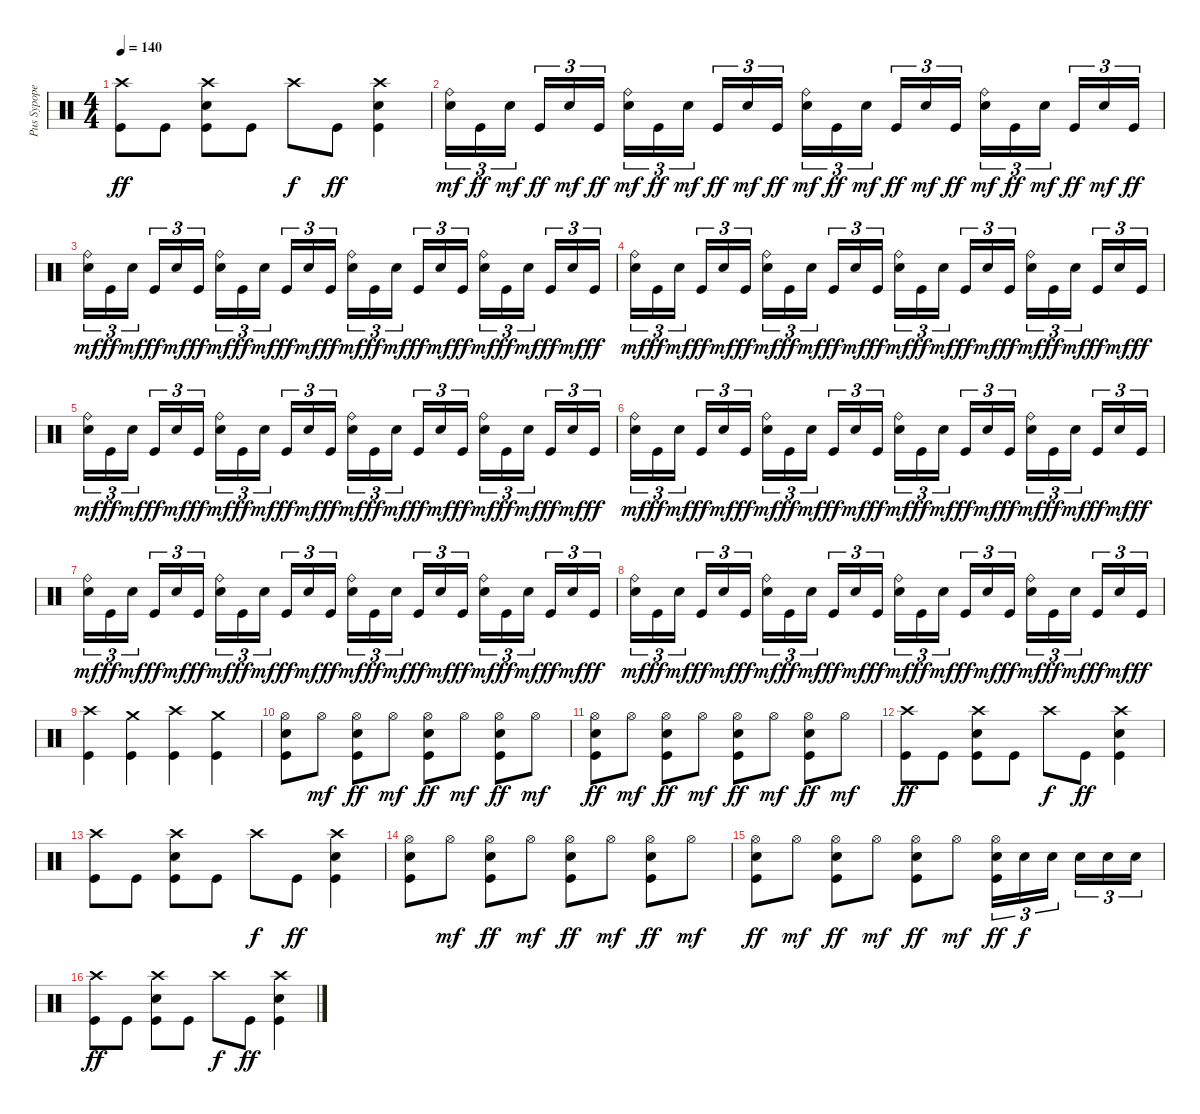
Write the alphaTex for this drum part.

\track ("Pus Sypope" "Pus Sypope") {instrument percussion}
\staff {score}
\articulation defaults
\ts (4 4)
\tempo 140
\clef neutral
\ks c
("Crash high (hit)" "Kick (hit)").8{dy ff} "Kick (hit)".8 ("Crash high (hit)" "Electric Snare (hit)" "Kick (hit)").8 "Kick (hit)".8 "Crash high (hit)".8{dy f} "Kick (hit)".8{dy ff} ("Crash high (hit)" "Electric Snare (hit)" "Kick (hit)").4 |
("Ride (bell)" "Electric Snare (hit)").16{tu (3 2) dy mf} "Kick (hit)".16{tu (3 2) dy ff} "Electric Snare (hit)".16{tu (3 2) dy mf} "Kick (hit)".16{tu (3 2) dy ff} "Electric Snare (hit)".16{tu (3 2) dy mf} "Kick (hit)".16{tu (3 2) dy ff} ("Ride (bell)" "Electric Snare (hit)").16{tu (3 2) dy mf} "Kick (hit)".16{tu (3 2) dy ff} "Electric Snare (hit)".16{tu (3 2) dy mf} "Kick (hit)".16{tu (3 2) dy ff} "Electric Snare (hit)".16{tu (3 2) dy mf} "Kick (hit)".16{tu (3 2) dy ff} ("Ride (bell)" "Electric Snare (hit)").16{tu (3 2) dy mf} "Kick (hit)".16{tu (3 2) dy ff} "Electric Snare (hit)".16{tu (3 2) dy mf} "Kick (hit)".16{tu (3 2) dy ff} "Electric Snare (hit)".16{tu (3 2) dy mf} "Kick (hit)".16{tu (3 2) dy ff} ("Ride (bell)" "Electric Snare (hit)").16{tu (3 2) dy mf} "Kick (hit)".16{tu (3 2) dy ff} "Electric Snare (hit)".16{tu (3 2) dy mf} "Kick (hit)".16{tu (3 2) dy ff} "Electric Snare (hit)".16{tu (3 2) dy mf} "Kick (hit)".16{tu (3 2) dy ff} |
("Ride (bell)" "Electric Snare (hit)").16{tu (3 2) dy mf} "Kick (hit)".16{tu (3 2) dy ff} "Electric Snare (hit)".16{tu (3 2) dy mf} "Kick (hit)".16{tu (3 2) dy ff} "Electric Snare (hit)".16{tu (3 2) dy mf} "Kick (hit)".16{tu (3 2) dy ff} ("Ride (bell)" "Electric Snare (hit)").16{tu (3 2) dy mf} "Kick (hit)".16{tu (3 2) dy ff} "Electric Snare (hit)".16{tu (3 2) dy mf} "Kick (hit)".16{tu (3 2) dy ff} "Electric Snare (hit)".16{tu (3 2) dy mf} "Kick (hit)".16{tu (3 2) dy ff} ("Ride (bell)" "Electric Snare (hit)").16{tu (3 2) dy mf} "Kick (hit)".16{tu (3 2) dy ff} "Electric Snare (hit)".16{tu (3 2) dy mf} "Kick (hit)".16{tu (3 2) dy ff} "Electric Snare (hit)".16{tu (3 2) dy mf} "Kick (hit)".16{tu (3 2) dy ff} ("Ride (bell)" "Electric Snare (hit)").16{tu (3 2) dy mf} "Kick (hit)".16{tu (3 2) dy ff} "Electric Snare (hit)".16{tu (3 2) dy mf} "Kick (hit)".16{tu (3 2) dy ff} "Electric Snare (hit)".16{tu (3 2) dy mf} "Kick (hit)".16{tu (3 2) dy ff} |
("Ride (bell)" "Electric Snare (hit)").16{tu (3 2) dy mf} "Kick (hit)".16{tu (3 2) dy ff} "Electric Snare (hit)".16{tu (3 2) dy mf} "Kick (hit)".16{tu (3 2) dy ff} "Electric Snare (hit)".16{tu (3 2) dy mf} "Kick (hit)".16{tu (3 2) dy ff} ("Ride (bell)" "Electric Snare (hit)").16{tu (3 2) dy mf} "Kick (hit)".16{tu (3 2) dy ff} "Electric Snare (hit)".16{tu (3 2) dy mf} "Kick (hit)".16{tu (3 2) dy ff} "Electric Snare (hit)".16{tu (3 2) dy mf} "Kick (hit)".16{tu (3 2) dy ff} ("Ride (bell)" "Electric Snare (hit)").16{tu (3 2) dy mf} "Kick (hit)".16{tu (3 2) dy ff} "Electric Snare (hit)".16{tu (3 2) dy mf} "Kick (hit)".16{tu (3 2) dy ff} "Electric Snare (hit)".16{tu (3 2) dy mf} "Kick (hit)".16{tu (3 2) dy ff} ("Ride (bell)" "Electric Snare (hit)").16{tu (3 2) dy mf} "Kick (hit)".16{tu (3 2) dy ff} "Electric Snare (hit)".16{tu (3 2) dy mf} "Kick (hit)".16{tu (3 2) dy ff} "Electric Snare (hit)".16{tu (3 2) dy mf} "Kick (hit)".16{tu (3 2) dy ff} |
("Ride (bell)" "Electric Snare (hit)").16{tu (3 2) dy mf} "Kick (hit)".16{tu (3 2) dy ff} "Electric Snare (hit)".16{tu (3 2) dy mf} "Kick (hit)".16{tu (3 2) dy ff} "Electric Snare (hit)".16{tu (3 2) dy mf} "Kick (hit)".16{tu (3 2) dy ff} ("Ride (bell)" "Electric Snare (hit)").16{tu (3 2) dy mf} "Kick (hit)".16{tu (3 2) dy ff} "Electric Snare (hit)".16{tu (3 2) dy mf} "Kick (hit)".16{tu (3 2) dy ff} "Electric Snare (hit)".16{tu (3 2) dy mf} "Kick (hit)".16{tu (3 2) dy ff} ("Ride (bell)" "Electric Snare (hit)").16{tu (3 2) dy mf} "Kick (hit)".16{tu (3 2) dy ff} "Electric Snare (hit)".16{tu (3 2) dy mf} "Kick (hit)".16{tu (3 2) dy ff} "Electric Snare (hit)".16{tu (3 2) dy mf} "Kick (hit)".16{tu (3 2) dy ff} ("Ride (bell)" "Electric Snare (hit)").16{tu (3 2) dy mf} "Kick (hit)".16{tu (3 2) dy ff} "Electric Snare (hit)".16{tu (3 2) dy mf} "Kick (hit)".16{tu (3 2) dy ff} "Electric Snare (hit)".16{tu (3 2) dy mf} "Kick (hit)".16{tu (3 2) dy ff} |
("Ride (bell)" "Electric Snare (hit)").16{tu (3 2) dy mf} "Kick (hit)".16{tu (3 2) dy ff} "Electric Snare (hit)".16{tu (3 2) dy mf} "Kick (hit)".16{tu (3 2) dy ff} "Electric Snare (hit)".16{tu (3 2) dy mf} "Kick (hit)".16{tu (3 2) dy ff} ("Ride (bell)" "Electric Snare (hit)").16{tu (3 2) dy mf} "Kick (hit)".16{tu (3 2) dy ff} "Electric Snare (hit)".16{tu (3 2) dy mf} "Kick (hit)".16{tu (3 2) dy ff} "Electric Snare (hit)".16{tu (3 2) dy mf} "Kick (hit)".16{tu (3 2) dy ff} ("Ride (bell)" "Electric Snare (hit)").16{tu (3 2) dy mf} "Kick (hit)".16{tu (3 2) dy ff} "Electric Snare (hit)".16{tu (3 2) dy mf} "Kick (hit)".16{tu (3 2) dy ff} "Electric Snare (hit)".16{tu (3 2) dy mf} "Kick (hit)".16{tu (3 2) dy ff} ("Ride (bell)" "Electric Snare (hit)").16{tu (3 2) dy mf} "Kick (hit)".16{tu (3 2) dy ff} "Electric Snare (hit)".16{tu (3 2) dy mf} "Kick (hit)".16{tu (3 2) dy ff} "Electric Snare (hit)".16{tu (3 2) dy mf} "Kick (hit)".16{tu (3 2) dy ff} |
("Ride (bell)" "Electric Snare (hit)").16{tu (3 2) dy mf} "Kick (hit)".16{tu (3 2) dy ff} "Electric Snare (hit)".16{tu (3 2) dy mf} "Kick (hit)".16{tu (3 2) dy ff} "Electric Snare (hit)".16{tu (3 2) dy mf} "Kick (hit)".16{tu (3 2) dy ff} ("Ride (bell)" "Electric Snare (hit)").16{tu (3 2) dy mf} "Kick (hit)".16{tu (3 2) dy ff} "Electric Snare (hit)".16{tu (3 2) dy mf} "Kick (hit)".16{tu (3 2) dy ff} "Electric Snare (hit)".16{tu (3 2) dy mf} "Kick (hit)".16{tu (3 2) dy ff} ("Ride (bell)" "Electric Snare (hit)").16{tu (3 2) dy mf} "Kick (hit)".16{tu (3 2) dy ff} "Electric Snare (hit)".16{tu (3 2) dy mf} "Kick (hit)".16{tu (3 2) dy ff} "Electric Snare (hit)".16{tu (3 2) dy mf} "Kick (hit)".16{tu (3 2) dy ff} ("Ride (bell)" "Electric Snare (hit)").16{tu (3 2) dy mf} "Kick (hit)".16{tu (3 2) dy ff} "Electric Snare (hit)".16{tu (3 2) dy mf} "Kick (hit)".16{tu (3 2) dy ff} "Electric Snare (hit)".16{tu (3 2) dy mf} "Kick (hit)".16{tu (3 2) dy ff} |
("Ride (bell)" "Electric Snare (hit)").16{tu (3 2) dy mf} "Kick (hit)".16{tu (3 2) dy ff} "Electric Snare (hit)".16{tu (3 2) dy mf} "Kick (hit)".16{tu (3 2) dy ff} "Electric Snare (hit)".16{tu (3 2) dy mf} "Kick (hit)".16{tu (3 2) dy ff} ("Ride (bell)" "Electric Snare (hit)").16{tu (3 2) dy mf} "Kick (hit)".16{tu (3 2) dy ff} "Electric Snare (hit)".16{tu (3 2) dy mf} "Kick (hit)".16{tu (3 2) dy ff} "Electric Snare (hit)".16{tu (3 2) dy mf} "Kick (hit)".16{tu (3 2) dy ff} ("Ride (bell)" "Electric Snare (hit)").16{tu (3 2) dy mf} "Kick (hit)".16{tu (3 2) dy ff} "Electric Snare (hit)".16{tu (3 2) dy mf} "Kick (hit)".16{tu (3 2) dy ff} "Electric Snare (hit)".16{tu (3 2) dy mf} "Kick (hit)".16{tu (3 2) dy ff} ("Ride (bell)" "Electric Snare (hit)").16{tu (3 2) dy mf} "Kick (hit)".16{tu (3 2) dy ff} "Electric Snare (hit)".16{tu (3 2) dy mf} "Kick (hit)".16{tu (3 2) dy ff} "Electric Snare (hit)".16{tu (3 2) dy mf} "Kick (hit)".16{tu (3 2) dy ff} |
("Crash high (hit)" "Kick (hit)").4 ("Crash medium (hit)" "Kick (hit)").4 ("Crash high (hit)" "Kick (hit)").4 ("Crash medium (hit)" "Kick (hit)").4 |
("Hi-Hat (open)" "Electric Snare (hit)" "Kick (hit)").8 "Hi-Hat (open)".8{dy mf} ("Hi-Hat (open)" "Electric Snare (hit)" "Kick (hit)").8{dy ff} "Hi-Hat (open)".8{dy mf} ("Hi-Hat (open)" "Electric Snare (hit)" "Kick (hit)").8{dy ff} "Hi-Hat (open)".8{dy mf} ("Hi-Hat (open)" "Electric Snare (hit)" "Kick (hit)").8{dy ff} "Hi-Hat (open)".8{dy mf} |
("Hi-Hat (open)" "Electric Snare (hit)" "Kick (hit)").8{dy ff} "Hi-Hat (open)".8{dy mf} ("Hi-Hat (open)" "Electric Snare (hit)" "Kick (hit)").8{dy ff} "Hi-Hat (open)".8{dy mf} ("Hi-Hat (open)" "Electric Snare (hit)" "Kick (hit)").8{dy ff} "Hi-Hat (open)".8{dy mf} ("Hi-Hat (open)" "Electric Snare (hit)" "Kick (hit)").8{dy ff} "Hi-Hat (open)".8{dy mf} |
("Crash high (hit)" "Kick (hit)").8{dy ff} "Kick (hit)".8 ("Crash high (hit)" "Electric Snare (hit)" "Kick (hit)").8 "Kick (hit)".8 "Crash high (hit)".8{dy f} "Kick (hit)".8{dy ff} ("Crash high (hit)" "Electric Snare (hit)" "Kick (hit)").4 |
("Crash high (hit)" "Kick (hit)").8 "Kick (hit)".8 ("Crash high (hit)" "Electric Snare (hit)" "Kick (hit)").8 "Kick (hit)".8 "Crash high (hit)".8{dy f} "Kick (hit)".8{dy ff} ("Crash high (hit)" "Electric Snare (hit)" "Kick (hit)").4 |
("Hi-Hat (open)" "Electric Snare (hit)" "Kick (hit)").8 "Hi-Hat (open)".8{dy mf} ("Hi-Hat (open)" "Electric Snare (hit)" "Kick (hit)").8{dy ff} "Hi-Hat (open)".8{dy mf} ("Hi-Hat (open)" "Electric Snare (hit)" "Kick (hit)").8{dy ff} "Hi-Hat (open)".8{dy mf} ("Hi-Hat (open)" "Electric Snare (hit)" "Kick (hit)").8{dy ff} "Hi-Hat (open)".8{dy mf} |
("Hi-Hat (open)" "Electric Snare (hit)" "Kick (hit)").8{dy ff} "Hi-Hat (open)".8{dy mf} ("Hi-Hat (open)" "Electric Snare (hit)" "Kick (hit)").8{dy ff} "Hi-Hat (open)".8{dy mf} ("Hi-Hat (open)" "Electric Snare (hit)" "Kick (hit)").8{dy ff} "Hi-Hat (open)".8{dy mf} ("Hi-Hat (open)" "Electric Snare (hit)" "Kick (hit)").16{tu (3 2) dy ff} "Electric Snare (hit)".16{tu (3 2) dy f} "Electric Snare (hit)".16{tu (3 2)} "Electric Snare (hit)".16{tu (3 2)} "Electric Snare (hit)".16{tu (3 2)} "Electric Snare (hit)".16{tu (3 2)} |
("Crash high (hit)" "Kick (hit)").8{dy ff} "Kick (hit)".8 ("Crash high (hit)" "Electric Snare (hit)" "Kick (hit)").8 "Kick (hit)".8 "Crash high (hit)".8{dy f} "Kick (hit)".8{dy ff} ("Crash high (hit)" "Electric Snare (hit)" "Kick (hit)").4
